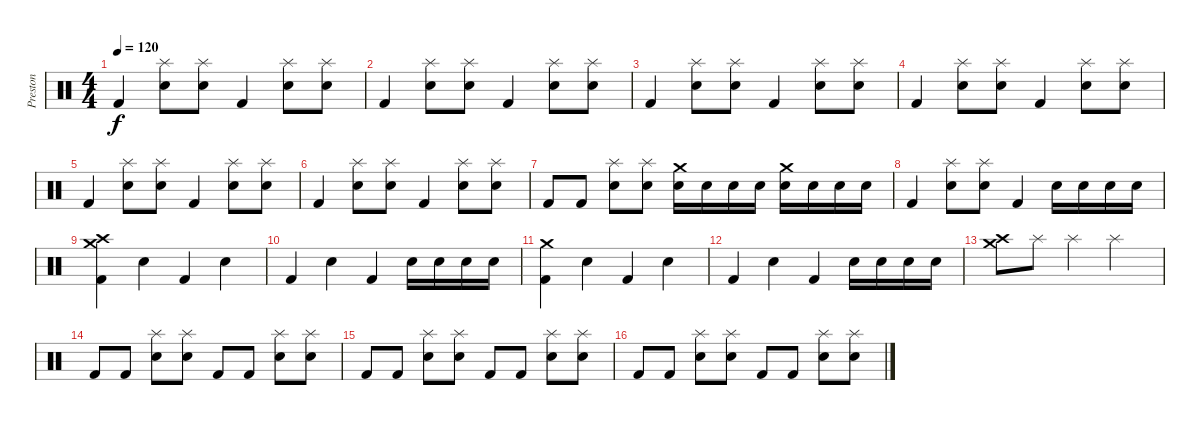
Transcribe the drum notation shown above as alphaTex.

\track ("Preston" "Preston") {instrument percussion}
\staff {score}
\articulation defaults
\ts (4 4)
\tempo 120
\clef neutral
\ks c "Kick (hit) 2".4{dy f}
("Splash (hit)" "Electric Snare (hit)").8 ("Splash (hit)" "Electric Snare (hit)").8 "Kick (hit) 2".4 ("Splash (hit)" "Electric Snare (hit)").8 ("Splash (hit)" "Electric Snare (hit)").8 |
"Kick (hit) 2".4 ("Splash (hit)" "Electric Snare (hit)").8 ("Splash (hit)" "Electric Snare (hit)").8 "Kick (hit) 2".4 ("Splash (hit)" "Electric Snare (hit)").8 ("Splash (hit)" "Electric Snare (hit)").8 |
"Kick (hit) 2".4 ("Splash (hit)" "Electric Snare (hit)").8 ("Splash (hit)" "Electric Snare (hit)").8 "Kick (hit) 2".4 ("Splash (hit)" "Electric Snare (hit)").8 ("Splash (hit)" "Electric Snare (hit)").8 |
"Kick (hit) 2".4 ("Splash (hit)" "Electric Snare (hit)").8 ("Splash (hit)" "Electric Snare (hit)").8 "Kick (hit) 2".4 ("Splash (hit)" "Electric Snare (hit)").8 ("Splash (hit)" "Electric Snare (hit)").8 |
"Kick (hit) 2".4 ("Splash (hit)" "Electric Snare (hit)").8 ("Splash (hit)" "Electric Snare (hit)").8 "Kick (hit) 2".4 ("Splash (hit)" "Electric Snare (hit)").8 ("Splash (hit)" "Electric Snare (hit)").8 |
"Kick (hit) 2".4 ("Splash (hit)" "Electric Snare (hit)").8 ("Splash (hit)" "Electric Snare (hit)").8 "Kick (hit) 2".4 ("Splash (hit)" "Electric Snare (hit)").8 ("Splash (hit)" "Electric Snare (hit)").8 |
"Kick (hit) 2".8 "Kick (hit) 2".8 ("Splash (hit)" "Electric Snare (hit)").8 ("Splash (hit)" "Electric Snare (hit)").8 ("Crash medium (hit)" "Electric Snare (hit)").16 "Electric Snare (hit)".16 "Electric Snare (hit)".16 "Electric Snare (hit)".16 ("Crash medium (hit)" "Electric Snare (hit)").16 "Electric Snare (hit)".16 "Electric Snare (hit)".16 "Electric Snare (hit)".16 |
"Kick (hit) 2".4 ("Splash (hit)" "Electric Snare (hit)").8 ("Splash (hit)" "Electric Snare (hit)").8 "Kick (hit) 2".4 "Electric Snare (hit)".16 "Electric Snare (hit)".16 "Electric Snare (hit)".16 "Electric Snare (hit)".16 |
("Crash medium (hit)" "Crash high (hit)" "Kick (hit) 2").4 "Electric Snare (hit)".4 "Kick (hit) 2".4 "Electric Snare (hit)".4 |
"Kick (hit) 2".4 "Electric Snare (hit)".4 "Kick (hit) 2".4 "Electric Snare (hit)".16 "Electric Snare (hit)".16 "Electric Snare (hit)".16 "Electric Snare (hit)".16 |
("Crash medium (hit)" "Kick (hit) 2").4 "Electric Snare (hit)".4 "Kick (hit) 2".4 "Electric Snare (hit)".4 |
"Kick (hit) 2".4 "Electric Snare (hit)".4 "Kick (hit) 2".4 "Electric Snare (hit)".16 "Electric Snare (hit)".16 "Electric Snare (hit)".16 "Electric Snare (hit)".16 |
("Crash medium (hit)" "Crash high (hit)").8 "Splash (hit)".8 "Splash (hit)".4 "Splash (hit)".2 |
"Kick (hit) 2".8 "Kick (hit) 2".8 ("Splash (hit)" "Electric Snare (hit)").8 ("Splash (hit)" "Electric Snare (hit)").8 "Kick (hit) 2".8 "Kick (hit) 2".8 ("Splash (hit)" "Electric Snare (hit)").8 ("Splash (hit)" "Electric Snare (hit)").8 |
"Kick (hit) 2".8 "Kick (hit) 2".8 ("Splash (hit)" "Electric Snare (hit)").8 ("Splash (hit)" "Electric Snare (hit)").8 "Kick (hit) 2".8 "Kick (hit) 2".8 ("Splash (hit)" "Electric Snare (hit)").8 ("Splash (hit)" "Electric Snare (hit)").8 |
"Kick (hit) 2".8 "Kick (hit) 2".8 ("Splash (hit)" "Electric Snare (hit)").8 ("Splash (hit)" "Electric Snare (hit)").8 "Kick (hit) 2".8 "Kick (hit) 2".8 ("Splash (hit)" "Electric Snare (hit)").8 ("Splash (hit)" "Electric Snare (hit)").8
